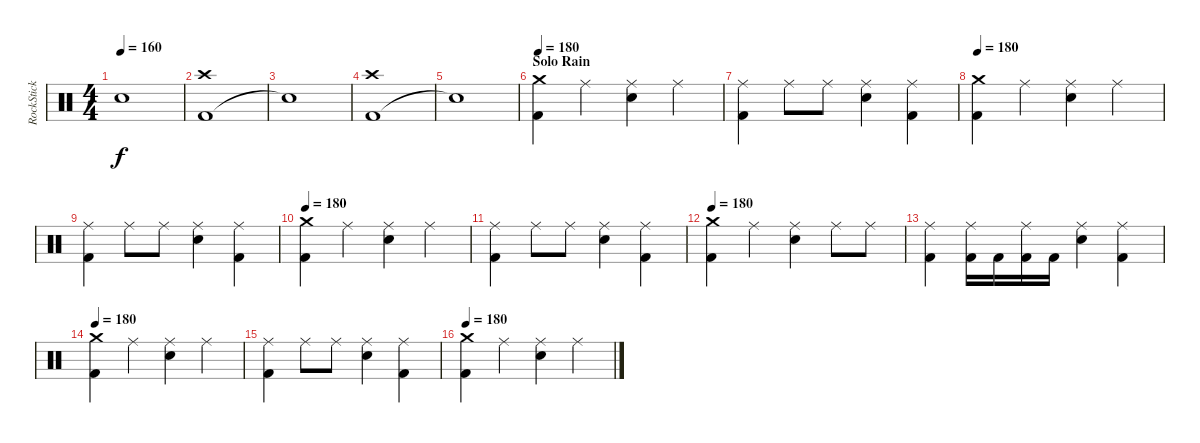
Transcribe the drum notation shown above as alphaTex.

\track ("RockStick" "RockStick") {instrument percussion}
\staff {score}
\articulation defaults
\ts (4 4)
\tempo 160
\clef neutral
\ks c "Snare (hit)"{t}.1{dy f}
|
("Kick (hit) 2" "Crash high (hit)").1 |
"Snare (hit)"{t}.1 |
("Kick (hit) 2" "Crash high (hit)").1 |
"Snare (hit)"{t}.1 |
\section ("" "Solo Rain")
\tempo 180
("Kick (hit) 2" "Crash medium (hit)").4 "Ride (middle)".4 ("Electric Snare (hit)" "Ride (middle)").4 "Ride (middle)".4 |
("Kick (hit) 2" "Ride (middle)").4 "Ride (middle)".8 "Ride (middle)".8 ("Electric Snare (hit)" "Ride (middle)").4 ("Kick (hit) 2" "Ride (middle)").4 |
\tempo 180
("Kick (hit) 2" "Crash medium (hit)").4 "Ride (middle)".4 ("Electric Snare (hit)" "Ride (middle)").4 "Ride (middle)".4 |
("Kick (hit) 2" "Ride (middle)").4 "Ride (middle)".8 "Ride (middle)".8 ("Electric Snare (hit)" "Ride (middle)").4 ("Kick (hit) 2" "Ride (middle)").4 |
\tempo 180
("Kick (hit) 2" "Crash medium (hit)").4 "Ride (middle)".4 ("Electric Snare (hit)" "Ride (middle)").4 "Ride (middle)".4 |
("Kick (hit) 2" "Ride (middle)").4 "Ride (middle)".8 "Ride (middle)".8 ("Electric Snare (hit)" "Ride (middle)").4 ("Kick (hit) 2" "Ride (middle)").4 |
\tempo 180
("Kick (hit) 2" "Crash medium (hit)").4 "Ride (middle)".4 ("Electric Snare (hit)" "Ride (middle)").4 "Ride (middle)".8 "Ride (middle)".8 |
("Kick (hit) 2" "Ride (middle)").4 ("Kick (hit) 2" "Ride (middle)").16 "Kick (hit) 2".16 ("Kick (hit) 2" "Ride (middle)").16 "Kick (hit) 2".16 ("Electric Snare (hit)" "Ride (middle)").4 ("Kick (hit) 2" "Ride (middle)").4 |
\tempo 180
("Kick (hit) 2" "Crash medium (hit)").4 "Ride (middle)".4 ("Electric Snare (hit)" "Ride (middle)").4 "Ride (middle)".4 |
("Kick (hit) 2" "Ride (middle)").4 "Ride (middle)".8 "Ride (middle)".8 ("Electric Snare (hit)" "Ride (middle)").4 ("Kick (hit) 2" "Ride (middle)").4 |
\tempo 180
("Kick (hit) 2" "Crash medium (hit)").4 "Ride (middle)".4 ("Electric Snare (hit)" "Ride (middle)").4 "Ride (middle)".4
